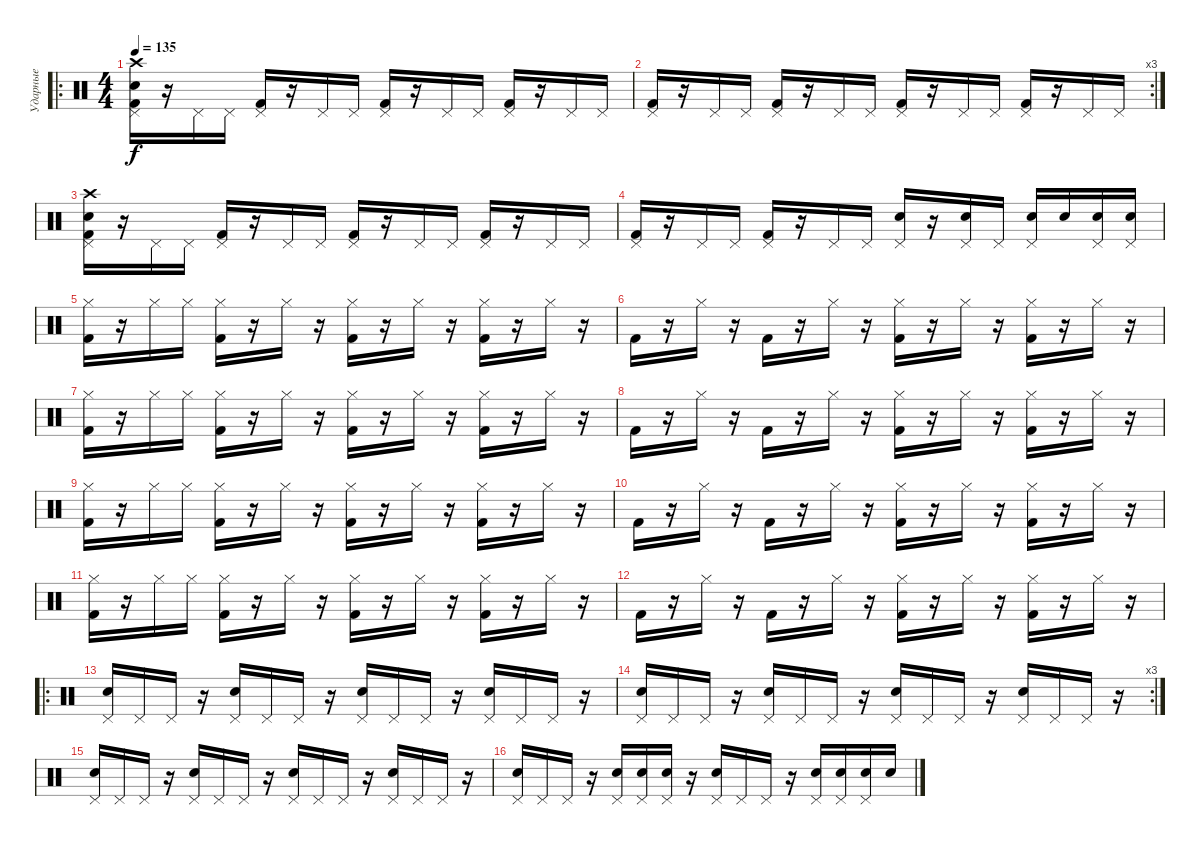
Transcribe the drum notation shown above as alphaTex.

\track ("Ударные" "Ударные") {instrument percussion}
\staff {score}
\articulation defaults
\ro
\ts (4 4)
\tempo 135
\clef neutral
\ks c
("Pedal Hi-Hat (hit)" "Kick (hit) 2" "Snare (hit) 2" "Crash high (hit)").16{dy f} r.16 "Pedal Hi-Hat (hit)".16 "Pedal Hi-Hat (hit)".16 ("Pedal Hi-Hat (hit)" "Kick (hit) 2").16 r.16 "Pedal Hi-Hat (hit)".16 "Pedal Hi-Hat (hit)".16 ("Pedal Hi-Hat (hit)" "Kick (hit) 2").16 r.16 "Pedal Hi-Hat (hit)".16 "Pedal Hi-Hat (hit)".16 ("Pedal Hi-Hat (hit)" "Kick (hit) 2").16 r.16 "Pedal Hi-Hat (hit)".16 "Pedal Hi-Hat (hit)".16 |
\rc 3
("Pedal Hi-Hat (hit)" "Kick (hit) 2").16 r.16 "Pedal Hi-Hat (hit)".16 "Pedal Hi-Hat (hit)".16 ("Pedal Hi-Hat (hit)" "Kick (hit) 2").16 r.16 "Pedal Hi-Hat (hit)".16 "Pedal Hi-Hat (hit)".16 ("Pedal Hi-Hat (hit)" "Kick (hit) 2").16 r.16 "Pedal Hi-Hat (hit)".16 "Pedal Hi-Hat (hit)".16 ("Pedal Hi-Hat (hit)" "Kick (hit) 2").16 r.16 "Pedal Hi-Hat (hit)".16 "Pedal Hi-Hat (hit)".16 |
("Pedal Hi-Hat (hit)" "Kick (hit) 2" "Snare (hit) 2" "Crash high (hit)").16 r.16 "Pedal Hi-Hat (hit)".16 "Pedal Hi-Hat (hit)".16 ("Pedal Hi-Hat (hit)" "Kick (hit) 2").16 r.16 "Pedal Hi-Hat (hit)".16 "Pedal Hi-Hat (hit)".16 ("Pedal Hi-Hat (hit)" "Kick (hit) 2").16 r.16 "Pedal Hi-Hat (hit)".16 "Pedal Hi-Hat (hit)".16 ("Pedal Hi-Hat (hit)" "Kick (hit) 2").16 r.16 "Pedal Hi-Hat (hit)".16 "Pedal Hi-Hat (hit)".16 |
("Pedal Hi-Hat (hit)" "Kick (hit) 2").16 r.16 "Pedal Hi-Hat (hit)".16 "Pedal Hi-Hat (hit)".16 ("Pedal Hi-Hat (hit)" "Kick (hit) 2").16 r.16 "Pedal Hi-Hat (hit)".16 "Pedal Hi-Hat (hit)".16 ("Pedal Hi-Hat (hit)" "Snare (hit) 2").16 r.16 ("Pedal Hi-Hat (hit)" "Snare (hit) 2").16 "Pedal Hi-Hat (hit)".16 ("Pedal Hi-Hat (hit)" "Snare (hit) 2").16 "Snare (hit) 2".16 ("Pedal Hi-Hat (hit)" "Snare (hit) 2").16 ("Pedal Hi-Hat (hit)" "Snare (hit) 2").16 |
("Kick (hit) 2" "Hi-Hat (closed)").16 r.16 "Hi-Hat (closed)".16 "Hi-Hat (closed)".16 ("Kick (hit) 2" "Hi-Hat (closed)").16 r.16 "Hi-Hat (closed)".16 r.16 ("Kick (hit) 2" "Hi-Hat (closed)").16 r.16 "Hi-Hat (closed)".16 r.16 ("Kick (hit) 2" "Hi-Hat (closed)").16 r.16 "Hi-Hat (closed)".16 r.16 |
"Kick (hit) 2".16 r.16 "Hi-Hat (closed)".16 r.16 "Kick (hit) 2".16 r.16 "Hi-Hat (closed)".16 r.16 ("Kick (hit) 2" "Hi-Hat (closed)").16 r.16 "Hi-Hat (closed)".16 r.16 ("Kick (hit) 2" "Hi-Hat (closed)").16 r.16 "Hi-Hat (closed)".16 r.16 |
("Kick (hit) 2" "Hi-Hat (closed)").16 r.16 "Hi-Hat (closed)".16 "Hi-Hat (closed)".16 ("Kick (hit) 2" "Hi-Hat (closed)").16 r.16 "Hi-Hat (closed)".16 r.16 ("Kick (hit) 2" "Hi-Hat (closed)").16 r.16 "Hi-Hat (closed)".16 r.16 ("Kick (hit) 2" "Hi-Hat (closed)").16 r.16 "Hi-Hat (closed)".16 r.16 |
"Kick (hit) 2".16 r.16 "Hi-Hat (closed)".16 r.16 "Kick (hit) 2".16 r.16 "Hi-Hat (closed)".16 r.16 ("Kick (hit) 2" "Hi-Hat (closed)").16 r.16 "Hi-Hat (closed)".16 r.16 ("Kick (hit) 2" "Hi-Hat (closed)").16 r.16 "Hi-Hat (closed)".16 r.16 |
("Kick (hit) 2" "Hi-Hat (closed)").16 r.16 "Hi-Hat (closed)".16 "Hi-Hat (closed)".16 ("Kick (hit) 2" "Hi-Hat (closed)").16 r.16 "Hi-Hat (closed)".16 r.16 ("Kick (hit) 2" "Hi-Hat (closed)").16 r.16 "Hi-Hat (closed)".16 r.16 ("Kick (hit) 2" "Hi-Hat (closed)").16 r.16 "Hi-Hat (closed)".16 r.16 |
"Kick (hit) 2".16 r.16 "Hi-Hat (closed)".16 r.16 "Kick (hit) 2".16 r.16 "Hi-Hat (closed)".16 r.16 ("Kick (hit) 2" "Hi-Hat (closed)").16 r.16 "Hi-Hat (closed)".16 r.16 ("Kick (hit) 2" "Hi-Hat (closed)").16 r.16 "Hi-Hat (closed)".16 r.16 |
("Kick (hit) 2" "Hi-Hat (closed)").16 r.16 "Hi-Hat (closed)".16 "Hi-Hat (closed)".16 ("Kick (hit) 2" "Hi-Hat (closed)").16 r.16 "Hi-Hat (closed)".16 r.16 ("Kick (hit) 2" "Hi-Hat (closed)").16 r.16 "Hi-Hat (closed)".16 r.16 ("Kick (hit) 2" "Hi-Hat (closed)").16 r.16 "Hi-Hat (closed)".16 r.16 |
"Kick (hit) 2".16 r.16 "Hi-Hat (closed)".16 r.16 "Kick (hit) 2".16 r.16 "Hi-Hat (closed)".16 r.16 ("Kick (hit) 2" "Hi-Hat (closed)").16 r.16 "Hi-Hat (closed)".16 r.16 ("Kick (hit) 2" "Hi-Hat (closed)").16 r.16 "Hi-Hat (closed)".16 r.16 |
\ro
("Pedal Hi-Hat (hit)" "Snare (hit) 2").16 "Pedal Hi-Hat (hit)".16 "Pedal Hi-Hat (hit)".16 r.16 ("Pedal Hi-Hat (hit)" "Snare (hit) 2").16 "Pedal Hi-Hat (hit)".16 "Pedal Hi-Hat (hit)".16 r.16 ("Pedal Hi-Hat (hit)" "Snare (hit) 2").16 "Pedal Hi-Hat (hit)".16 "Pedal Hi-Hat (hit)".16 r.16 ("Pedal Hi-Hat (hit)" "Snare (hit) 2").16 "Pedal Hi-Hat (hit)".16 "Pedal Hi-Hat (hit)".16 r.16 |
\rc 3
("Pedal Hi-Hat (hit)" "Snare (hit) 2").16 "Pedal Hi-Hat (hit)".16 "Pedal Hi-Hat (hit)".16 r.16 ("Pedal Hi-Hat (hit)" "Snare (hit) 2").16 "Pedal Hi-Hat (hit)".16 "Pedal Hi-Hat (hit)".16 r.16 ("Pedal Hi-Hat (hit)" "Snare (hit) 2").16 "Pedal Hi-Hat (hit)".16 "Pedal Hi-Hat (hit)".16 r.16 ("Pedal Hi-Hat (hit)" "Snare (hit) 2").16 "Pedal Hi-Hat (hit)".16 "Pedal Hi-Hat (hit)".16 r.16 |
("Pedal Hi-Hat (hit)" "Snare (hit) 2").16 "Pedal Hi-Hat (hit)".16 "Pedal Hi-Hat (hit)".16 r.16 ("Pedal Hi-Hat (hit)" "Snare (hit) 2").16 "Pedal Hi-Hat (hit)".16 "Pedal Hi-Hat (hit)".16 r.16 ("Pedal Hi-Hat (hit)" "Snare (hit) 2").16 "Pedal Hi-Hat (hit)".16 "Pedal Hi-Hat (hit)".16 r.16 ("Pedal Hi-Hat (hit)" "Snare (hit) 2").16 "Pedal Hi-Hat (hit)".16 "Pedal Hi-Hat (hit)".16 r.16 |
("Pedal Hi-Hat (hit)" "Snare (hit) 2").16 "Pedal Hi-Hat (hit)".16 "Pedal Hi-Hat (hit)".16 r.16 ("Pedal Hi-Hat (hit)" "Snare (hit) 2").16 ("Pedal Hi-Hat (hit)" "Snare (hit) 2").16 ("Pedal Hi-Hat (hit)" "Snare (hit) 2").16 r.16 ("Pedal Hi-Hat (hit)" "Snare (hit) 2").16 "Pedal Hi-Hat (hit)".16 "Pedal Hi-Hat (hit)".16 r.16 ("Pedal Hi-Hat (hit)" "Snare (hit) 2").16 ("Pedal Hi-Hat (hit)" "Snare (hit) 2").16 ("Pedal Hi-Hat (hit)" "Snare (hit) 2").16 "Snare (hit) 2".16
